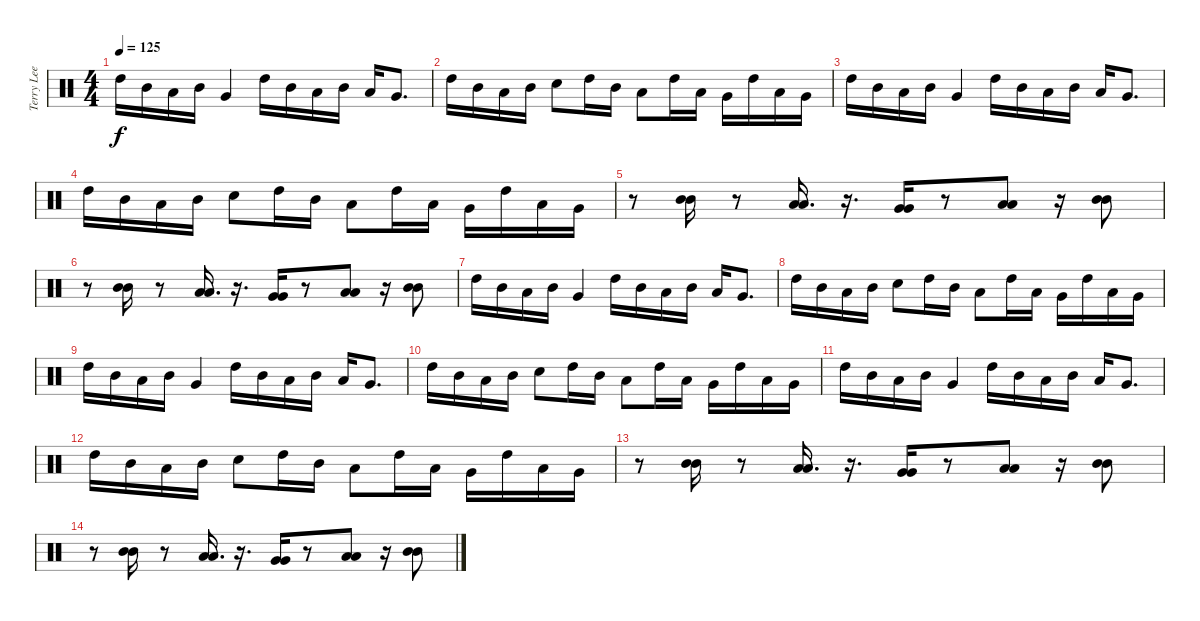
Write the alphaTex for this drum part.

\track ("Terry Lee Miall" "Terry Lee ") {instrument percussion}
\staff {score}
\articulation defaults
\ts (4 4)
\tempo 125
\clef neutral
\ks c "High Tom (hit)".16{dy f} "Mid Tom (hit)".16 "Low Tom (hit)".16 "Mid Tom (hit)".16 "Very Low Tom (hit)".4 "High Tom (hit)".16 "Mid Tom (hit)".16 "Low Tom (hit)".16 "Mid Tom (hit)".16 "Low Tom (hit)".16 "Very Low Tom (hit)".8{d}
|
"High Tom (hit)".16 "Mid Tom (hit)".16 "Low Tom (hit)".16 "Mid Tom (hit)".16 "Electric Snare (hit)".8 "High Tom (hit)".16 "Mid Tom (hit)".16 "Low Tom (hit)".8 "High Tom (hit)".16 "Low Tom (hit)".16 "Very Low Tom (hit)".16 "High Tom (hit)".16 "Low Tom (hit)".16 "Very Low Tom (hit)".16 |
"High Tom (hit)".16 "Mid Tom (hit)".16 "Low Tom (hit)".16 "Mid Tom (hit)".16 "Very Low Tom (hit)".4 "High Tom (hit)".16 "Mid Tom (hit)".16 "Low Tom (hit)".16 "Mid Tom (hit)".16 "Low Tom (hit)".16 "Very Low Tom (hit)".8{d} |
"High Tom (hit)".16 "Mid Tom (hit)".16 "Low Tom (hit)".16 "Mid Tom (hit)".16 "Electric Snare (hit)".8 "High Tom (hit)".16 "Mid Tom (hit)".16 "Low Tom (hit)".8 "High Tom (hit)".16 "Low Tom (hit)".16 "Very Low Tom (hit)".16 "High Tom (hit)".16 "Low Tom (hit)".16 "Very Low Tom (hit)".16 |
r.8 ("Mid Tom (hit)" "Mid Tom (hit)").16 r.8 ("Low Tom (hit)" "Low Tom (hit)").16{d} r.16{d} ("Very Low Tom (hit)" "Very Low Tom (hit)").16 r.8 ("Low Tom (hit)" "Low Tom (hit)").8 r.16 ("Mid Tom (hit)" "Mid Tom (hit)").8 |
r.8 ("Mid Tom (hit)" "Mid Tom (hit)").16 r.8 ("Low Tom (hit)" "Low Tom (hit)").16{d} r.16{d} ("Very Low Tom (hit)" "Very Low Tom (hit)").16 r.8 ("Low Tom (hit)" "Low Tom (hit)").8 r.16 ("Mid Tom (hit)" "Mid Tom (hit)").8 |
"High Tom (hit)".16 "Mid Tom (hit)".16 "Low Tom (hit)".16 "Mid Tom (hit)".16 "Very Low Tom (hit)".4 "High Tom (hit)".16 "Mid Tom (hit)".16 "Low Tom (hit)".16 "Mid Tom (hit)".16 "Low Tom (hit)".16 "Very Low Tom (hit)".8{d} |
"High Tom (hit)".16 "Mid Tom (hit)".16 "Low Tom (hit)".16 "Mid Tom (hit)".16 "Electric Snare (hit)".8 "High Tom (hit)".16 "Mid Tom (hit)".16 "Low Tom (hit)".8 "High Tom (hit)".16 "Low Tom (hit)".16 "Very Low Tom (hit)".16 "High Tom (hit)".16 "Low Tom (hit)".16 "Very Low Tom (hit)".16 |
"High Tom (hit)".16 "Mid Tom (hit)".16 "Low Tom (hit)".16 "Mid Tom (hit)".16 "Very Low Tom (hit)".4 "High Tom (hit)".16 "Mid Tom (hit)".16 "Low Tom (hit)".16 "Mid Tom (hit)".16 "Low Tom (hit)".16 "Very Low Tom (hit)".8{d} |
"High Tom (hit)".16 "Mid Tom (hit)".16 "Low Tom (hit)".16 "Mid Tom (hit)".16 "Electric Snare (hit)".8 "High Tom (hit)".16 "Mid Tom (hit)".16 "Low Tom (hit)".8 "High Tom (hit)".16 "Low Tom (hit)".16 "Very Low Tom (hit)".16 "High Tom (hit)".16 "Low Tom (hit)".16 "Very Low Tom (hit)".16 |
"High Tom (hit)".16 "Mid Tom (hit)".16 "Low Tom (hit)".16 "Mid Tom (hit)".16 "Very Low Tom (hit)".4 "High Tom (hit)".16 "Mid Tom (hit)".16 "Low Tom (hit)".16 "Mid Tom (hit)".16 "Low Tom (hit)".16 "Very Low Tom (hit)".8{d} |
"High Tom (hit)".16 "Mid Tom (hit)".16 "Low Tom (hit)".16 "Mid Tom (hit)".16 "Electric Snare (hit)".8 "High Tom (hit)".16 "Mid Tom (hit)".16 "Low Tom (hit)".8 "High Tom (hit)".16 "Low Tom (hit)".16 "Very Low Tom (hit)".16 "High Tom (hit)".16 "Low Tom (hit)".16 "Very Low Tom (hit)".16 |
r.8 ("Mid Tom (hit)" "Mid Tom (hit)").16 r.8 ("Low Tom (hit)" "Low Tom (hit)").16{d} r.16{d} ("Very Low Tom (hit)" "Very Low Tom (hit)").16 r.8 ("Low Tom (hit)" "Low Tom (hit)").8 r.16 ("Mid Tom (hit)" "Mid Tom (hit)").8 |
r.8 ("Mid Tom (hit)" "Mid Tom (hit)").16 r.8 ("Low Tom (hit)" "Low Tom (hit)").16{d} r.16{d} ("Very Low Tom (hit)" "Very Low Tom (hit)").16 r.8 ("Low Tom (hit)" "Low Tom (hit)").8 r.16 ("Mid Tom (hit)" "Mid Tom (hit)").8
